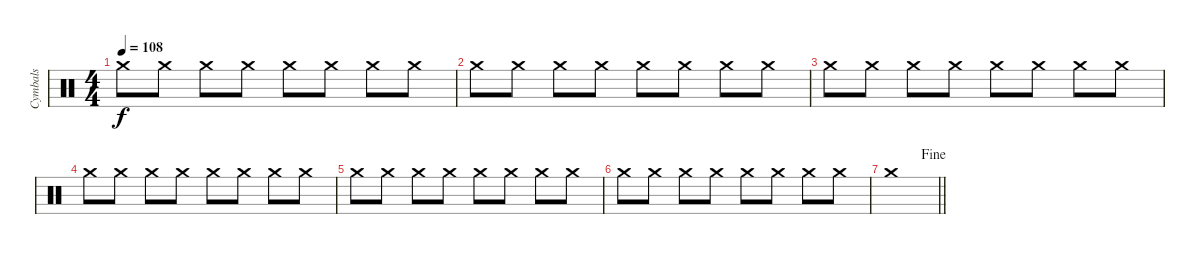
\track ("Cymbals" "Cymbals") {instrument percussion}
\staff {score}
\articulation defaults
\ts (4 4)
\tempo 108
\clef neutral
\ks c "Crash medium (hit)".8{dy f} "Crash medium (hit)".8 "Crash medium (hit)".8 "Crash medium (hit)".8 "Crash medium (hit)".8 "Crash medium (hit)".8 "Crash medium (hit)".8 "Crash medium (hit)".8
|
"Crash medium (hit)".8 "Crash medium (hit)".8 "Crash medium (hit)".8 "Crash medium (hit)".8 "Crash medium (hit)".8 "Crash medium (hit)".8 "Crash medium (hit)".8 "Crash medium (hit)".8 |
"Crash medium (hit)".8 "Crash medium (hit)".8 "Crash medium (hit)".8 "Crash medium (hit)".8 "Crash medium (hit)".8 "Crash medium (hit)".8 "Crash medium (hit)".8 "Crash medium (hit)".8 |
"Crash medium (hit)".8 "Crash medium (hit)".8 "Crash medium (hit)".8 "Crash medium (hit)".8 "Crash medium (hit)".8 "Crash medium (hit)".8 "Crash medium (hit)".8 "Crash medium (hit)".8 |
"Crash medium (hit)".8 "Crash medium (hit)".8 "Crash medium (hit)".8 "Crash medium (hit)".8 "Crash medium (hit)".8 "Crash medium (hit)".8 "Crash medium (hit)".8 "Crash medium (hit)".8 |
"Crash medium (hit)".8 "Crash medium (hit)".8 "Crash medium (hit)".8 "Crash medium (hit)".8 "Crash medium (hit)".8 "Crash medium (hit)".8 "Crash medium (hit)".8 "Crash medium (hit)".8 |
\jump fine
\barLineRight lightlight "Crash medium (hit)".1
